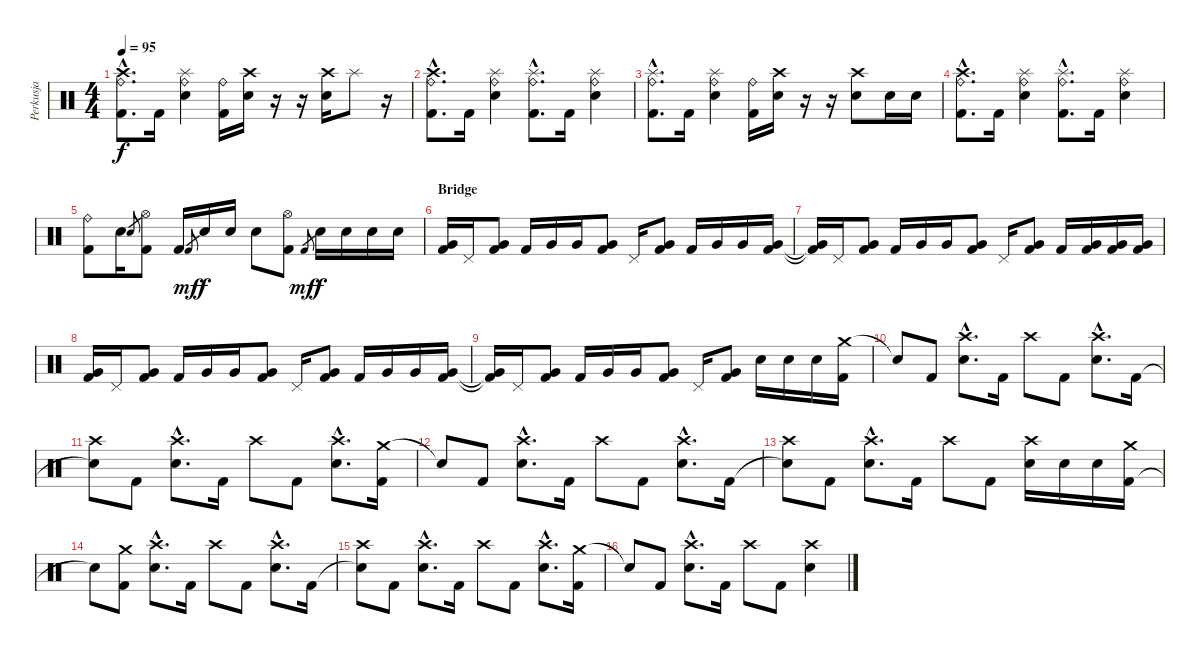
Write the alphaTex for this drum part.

\track ("Perkusja" "Perkusja") {instrument percussion}
\staff {score}
\articulation defaults
\ts (4 4)
\tempo 95
\clef neutral
\ks c
("Kick (hit) 2"{hac} "Crash high (hit)"{hac} "Ride (bell)"{hac}).8{d dy f} "Kick (hit) 2".16 ("Electric Snare (hit)" "Splash (hit)" "Ride (bell)").4 ("Kick (hit) 2" "Ride (bell)").16 ("Electric Snare (hit)" "Crash high (hit)").16 r.16 r.16 ("Electric Snare (hit)" "Crash high (hit)").16 "Splash (hit)".8 r.16 |
("Kick (hit) 2"{hac} "Crash high (hit)"{hac} "Ride (bell)"{hac}).8{d} "Kick (hit) 2".16 ("Electric Snare (hit)" "Splash (hit)" "Ride (bell)").4 ("Kick (hit) 2"{hac} "Splash (hit)"{hac} "Ride (bell)"{hac}).8{d} "Kick (hit) 2".16 ("Electric Snare (hit)" "Splash (hit)" "Ride (bell)").4 |
("Kick (hit) 2"{hac} "Splash (hit)"{hac} "Ride (bell)"{hac}).8{d} "Kick (hit) 2".16 ("Electric Snare (hit)" "Splash (hit)" "Ride (bell)").4 ("Kick (hit) 2" "Ride (bell)").16 ("Electric Snare (hit)" "Crash high (hit)").16 r.16 r.16 ("Electric Snare (hit)" "Crash high (hit)").8 "Electric Snare (hit)".16 "Electric Snare (hit)".16 |
("Kick (hit) 2"{hac} "Crash high (hit)"{hac} "Ride (bell)"{hac}).8{d} "Kick (hit) 2".16 ("Electric Snare (hit)" "Splash (hit)" "Ride (bell)").4 ("Kick (hit) 2"{hac} "Splash (hit)"{hac} "Ride (bell)"{hac}).8{d} "Kick (hit) 2".16 ("Electric Snare (hit)" "Splash (hit)" "Ride (bell)").4 |
("Ride (bell)" "Kick (hit) 2").8 "Electric Snare (hit)".16 "Snare (hit)".8{gr} ("Kick (hit) 2" "Hi-Hat (open)").8 "Kick (hit) 2".16 "Kick (hit) 2".8{gr dy mf} "Electric Snare (hit)".16{dy f} "Electric Snare (hit)".16 "Electric Snare (hit)".8 ("Kick (hit) 2" "Hi-Hat (open)").8 "Kick (hit) 2".8{gr dy mf} "Electric Snare (hit)".16{dy f} "Electric Snare (hit)".16 "Electric Snare (hit)".16 "Electric Snare (hit)".16 |
\section ("" "Bridge")
("Kick (hit) 2" "Very Low Tom (hit)").16 "Pedal Hi-Hat (hit)".16 ("Kick (hit) 2" "Very Low Tom (hit)").8 "Kick (hit) 2".16 "Very Low Tom (hit)".16 "Very Low Tom (hit)".16 ("Kick (hit) 2" "Very Low Tom (hit)").8 "Pedal Hi-Hat (hit)".16 ("Kick (hit) 2" "Very Low Tom (hit)").8 "Kick (hit) 2".16 "Very Low Tom (hit)".16 "Very Low Tom (hit)".16 ("Kick (hit) 2" "Very Low Tom (hit)").16 |
("Kick (hit) 2"{t} "Very Low Tom (hit)"{t}).16 "Pedal Hi-Hat (hit)".16 ("Kick (hit) 2" "Very Low Tom (hit)").8 "Kick (hit) 2".16 "Very Low Tom (hit)".16 "Very Low Tom (hit)".16 ("Kick (hit) 2" "Very Low Tom (hit)").8 "Pedal Hi-Hat (hit)".16 ("Kick (hit) 2" "Very Low Tom (hit)").8 "Kick (hit) 2".16 ("Kick (hit) 2" "Very Low Tom (hit)").16 ("Kick (hit) 2" "Very Low Tom (hit)").16 ("Kick (hit) 2" "Very Low Tom (hit)").16 |
("Kick (hit) 2" "Very Low Tom (hit)").16 "Pedal Hi-Hat (hit)".16 ("Kick (hit) 2" "Very Low Tom (hit)").8 "Kick (hit) 2".16 "Very Low Tom (hit)".16 "Very Low Tom (hit)".16 ("Kick (hit) 2" "Very Low Tom (hit)").8 "Pedal Hi-Hat (hit)".16 ("Kick (hit) 2" "Very Low Tom (hit)").8 "Kick (hit) 2".16 "Very Low Tom (hit)".16 "Very Low Tom (hit)".16 ("Kick (hit) 2" "Very Low Tom (hit)").16 |
("Kick (hit) 2"{t} "Very Low Tom (hit)"{t}).16 "Pedal Hi-Hat (hit)".16 ("Kick (hit) 2" "Very Low Tom (hit)").8 "Kick (hit) 2".16 "Very Low Tom (hit)".16 "Very Low Tom (hit)".16 ("Kick (hit) 2" "Very Low Tom (hit)").8 "Pedal Hi-Hat (hit)".16 ("Kick (hit) 2" "Very Low Tom (hit)").8 "Electric Snare (hit)".16 "Electric Snare (hit)".16 "Electric Snare (hit)".16 ("Crash medium (hit)" "Kick (hit) 2").16 |
"Snare (hit)"{t}.8 "Kick (hit) 2".8 ("Electric Snare (hit)"{hac} "Crash high (hit)"{hac}).8{d} "Kick (hit) 2".16 "Crash high (hit)".8 "Kick (hit) 2".8 ("Electric Snare (hit)"{hac} "Crash high (hit)"{hac}).8{d} "Kick (hit) 2".16 |
("Snare (hit)"{t} "Crash high (hit)").8 "Kick (hit) 2".8 ("Electric Snare (hit)"{hac} "Crash high (hit)"{hac}).8{d} "Kick (hit) 2".16 "Crash high (hit)".8 "Kick (hit) 2".8 ("Electric Snare (hit)"{hac} "Crash high (hit)"{hac}).8{d} ("Crash medium (hit)" "Kick (hit) 2").16 |
"Snare (hit)"{t}.8 "Kick (hit) 2".8 ("Electric Snare (hit)"{hac} "Crash high (hit)"{hac}).8{d} "Kick (hit) 2".16 "Crash high (hit)".8 "Kick (hit) 2".8 ("Electric Snare (hit)"{hac} "Crash high (hit)"{hac}).8{d} "Kick (hit) 2".16 |
("Snare (hit)"{t} "Crash high (hit)").8 "Kick (hit) 2".8 ("Electric Snare (hit)"{hac} "Crash high (hit)"{hac}).8{d} "Kick (hit) 2".16 "Crash high (hit)".8 "Kick (hit) 2".8 ("Electric Snare (hit)" "Crash high (hit)").16 "Electric Snare (hit)".16 "Electric Snare (hit)".16 ("Kick (hit) 2" "Crash medium (hit)").16 |
"Snare (hit)"{t}.8 ("Kick (hit) 2" "Crash medium (hit)").8 ("Electric Snare (hit)"{hac} "Crash high (hit)"{hac}).8{d} "Kick (hit) 2".16 "Crash high (hit)".8 "Kick (hit) 2".8 ("Electric Snare (hit)"{hac} "Crash high (hit)"{hac}).8{d} "Kick (hit) 2".16 |
("Snare (hit)"{t} "Crash high (hit)").8 "Kick (hit) 2".8 ("Electric Snare (hit)"{hac} "Crash high (hit)"{hac}).8{d} "Kick (hit) 2".16 "Crash high (hit)".8 "Kick (hit) 2".8 ("Electric Snare (hit)"{hac} "Crash high (hit)"{hac}).8{d} ("Crash medium (hit)" "Kick (hit) 2").16 |
"Snare (hit)"{t}.8 "Kick (hit) 2".8 ("Electric Snare (hit)"{hac} "Crash high (hit)"{hac}).8{d} "Kick (hit) 2".16 "Crash high (hit)".8 "Kick (hit) 2".8 ("Electric Snare (hit)" "Crash high (hit)").4
